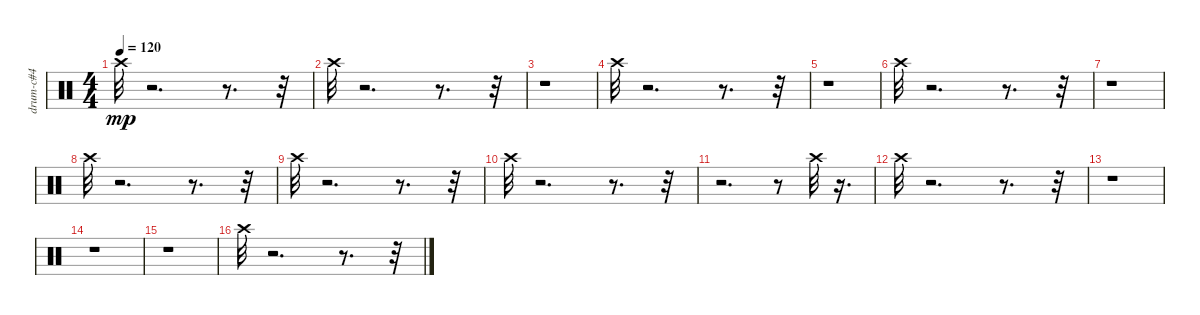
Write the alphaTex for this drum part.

\track ("drum-c#4" "drum-c#4") {instrument percussion}
\staff {score}
\articulation defaults
\ts (4 4)
\tempo 120
\clef neutral
\ks c "Crash high (hit)".32{dy mp}
r.2{d} r.8{d} r.32 |
"Crash high (hit)".32 r.2{d} r.8{d} r.32 |
r.1 |
"Crash high (hit)".32 r.2{d} r.8{d} r.32 |
r.1 |
"Crash high (hit)".32 r.2{d} r.8{d} r.32 |
r.1 |
"Crash high (hit)".32 r.2{d} r.8{d} r.32 |
"Crash high (hit)".32 r.2{d} r.8{d} r.32 |
"Crash high (hit)".32 r.2{d} r.8{d} r.32 |
r.2{d} r.8 "Crash high (hit)".32 r.16{d} |
"Crash high (hit)".32 r.2{d} r.8{d} r.32 |
r.1 |
r.1 |
r.1 |
"Crash high (hit)".32 r.2{d} r.8{d} r.32
